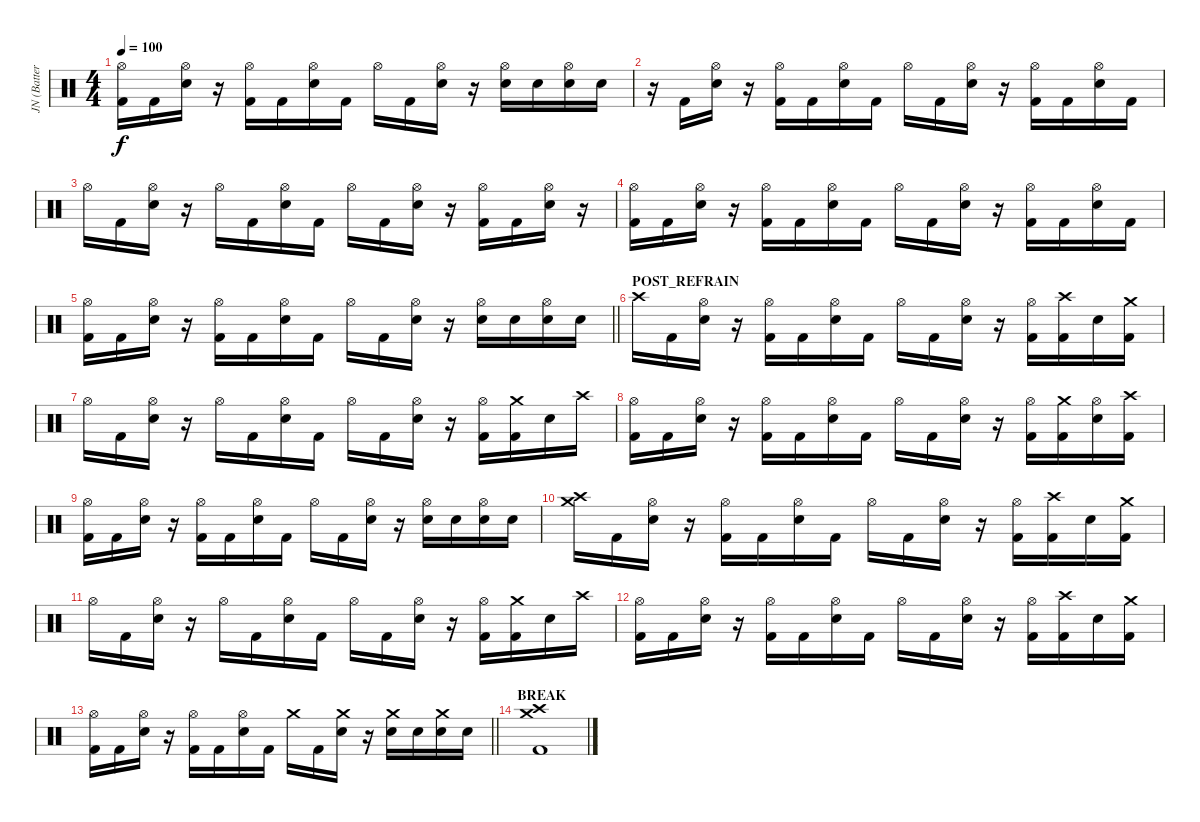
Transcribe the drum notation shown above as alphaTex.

\track ("JN (Batterie)" "JN (Batter") {instrument percussion}
\staff {score}
\articulation defaults
\ts (4 4)
\tempo 100
\clef neutral
\ks c
("Hi-Hat (open)" "Kick (hit) 2").16{dy f} "Kick (hit) 2".16 ("Hi-Hat (open)" "Electric Snare (hit)").16 r.16 ("Hi-Hat (open)" "Kick (hit) 2").16 "Kick (hit) 2".16 ("Hi-Hat (open)" "Electric Snare (hit)").16 "Kick (hit) 2".16 "Hi-Hat (open)".16 "Kick (hit) 2".16 ("Hi-Hat (open)" "Electric Snare (hit)").16 r.16 ("Hi-Hat (open)" "Electric Snare (hit)").16 "Electric Snare (hit)".16 ("Hi-Hat (open)" "Electric Snare (hit)").16 "Electric Snare (hit)".16 |
r.16 "Kick (hit) 2".16 ("Hi-Hat (open)" "Electric Snare (hit)").16 r.16 ("Hi-Hat (open)" "Kick (hit) 2").16 "Kick (hit) 2".16 ("Hi-Hat (open)" "Electric Snare (hit)").16 "Kick (hit) 2".16 "Hi-Hat (open)".16 "Kick (hit) 2".16 ("Hi-Hat (open)" "Electric Snare (hit)").16 r.16 ("Hi-Hat (open)" "Kick (hit) 2").16 "Kick (hit) 2".16 ("Hi-Hat (open)" "Electric Snare (hit)").16 "Kick (hit) 2".16 |
"Hi-Hat (open)".16 "Kick (hit) 2".16 ("Hi-Hat (open)" "Electric Snare (hit)").16 r.16 "Hi-Hat (open)".16 "Kick (hit) 2".16 ("Hi-Hat (open)" "Electric Snare (hit)").16 "Kick (hit) 2".16 "Hi-Hat (open)".16 "Kick (hit) 2".16 ("Hi-Hat (open)" "Electric Snare (hit)").16 r.16 ("Hi-Hat (open)" "Kick (hit) 2").16 "Kick (hit) 2".16 ("Hi-Hat (open)" "Electric Snare (hit)").16 r.16 |
("Hi-Hat (open)" "Kick (hit) 2").16 "Kick (hit) 2".16 ("Hi-Hat (open)" "Electric Snare (hit)").16 r.16 ("Hi-Hat (open)" "Kick (hit) 2").16 "Kick (hit) 2".16 ("Hi-Hat (open)" "Electric Snare (hit)").16 "Kick (hit) 2".16 "Hi-Hat (open)".16 "Kick (hit) 2".16 ("Hi-Hat (open)" "Electric Snare (hit)").16 r.16 ("Hi-Hat (open)" "Kick (hit) 2").16 "Kick (hit) 2".16 ("Hi-Hat (open)" "Electric Snare (hit)").16 "Kick (hit) 2".16 |
\barLineRight lightlight
("Hi-Hat (open)" "Kick (hit) 2").16 "Kick (hit) 2".16 ("Hi-Hat (open)" "Electric Snare (hit)").16 r.16 ("Hi-Hat (open)" "Kick (hit) 2").16 "Kick (hit) 2".16 ("Hi-Hat (open)" "Electric Snare (hit)").16 "Kick (hit) 2".16 "Hi-Hat (open)".16 "Kick (hit) 2".16 ("Hi-Hat (open)" "Electric Snare (hit)").16 r.16 ("Hi-Hat (open)" "Electric Snare (hit)").16 "Electric Snare (hit)".16 ("Hi-Hat (open)" "Electric Snare (hit)").16 "Electric Snare (hit)".16 |
\section ("" "POST_REFRAIN")
"Crash high (hit)".16 "Kick (hit) 2".16 ("Hi-Hat (open)" "Electric Snare (hit)").16 r.16 ("Hi-Hat (open)" "Kick (hit) 2").16 "Kick (hit) 2".16 ("Hi-Hat (open)" "Electric Snare (hit)").16 "Kick (hit) 2".16 "Hi-Hat (open)".16 "Kick (hit) 2".16 ("Hi-Hat (open)" "Electric Snare (hit)").16 r.16 ("Hi-Hat (open)" "Kick (hit) 2").16 ("Crash high (hit)" "Kick (hit) 2").16 "Electric Snare (hit)".16 ("Crash medium (hit)" "Kick (hit) 2").16 |
"Hi-Hat (open)".16 "Kick (hit) 2".16 ("Hi-Hat (open)" "Electric Snare (hit)").16 r.16 "Hi-Hat (open)".16 "Kick (hit) 2".16 ("Hi-Hat (open)" "Electric Snare (hit)").16 "Kick (hit) 2".16 "Hi-Hat (open)".16 "Kick (hit) 2".16 ("Hi-Hat (open)" "Electric Snare (hit)").16 r.16 ("Hi-Hat (open)" "Kick (hit) 2").16 ("Crash medium (hit)" "Kick (hit) 2").16 "Electric Snare (hit)".16 "Crash high (hit)".16 |
("Hi-Hat (open)" "Kick (hit) 2").16 "Kick (hit) 2".16 ("Hi-Hat (open)" "Electric Snare (hit)").16 r.16 ("Hi-Hat (open)" "Kick (hit) 2").16 "Kick (hit) 2".16 ("Hi-Hat (open)" "Electric Snare (hit)").16 "Kick (hit) 2".16 "Hi-Hat (open)".16 "Kick (hit) 2".16 ("Hi-Hat (open)" "Electric Snare (hit)").16 r.16 ("Hi-Hat (open)" "Kick (hit) 2").16 ("Crash medium (hit)" "Kick (hit) 2").16 ("Hi-Hat (open)" "Electric Snare (hit)").16 ("Crash high (hit)" "Kick (hit) 2").16 |
("Hi-Hat (open)" "Kick (hit) 2").16 "Kick (hit) 2".16 ("Hi-Hat (open)" "Electric Snare (hit)").16 r.16 ("Hi-Hat (open)" "Kick (hit) 2").16 "Kick (hit) 2".16 ("Hi-Hat (open)" "Electric Snare (hit)").16 "Kick (hit) 2".16 "Hi-Hat (open)".16 "Kick (hit) 2".16 ("Hi-Hat (open)" "Electric Snare (hit)").16 r.16 ("Hi-Hat (open)" "Electric Snare (hit)").16 "Electric Snare (hit)".16 ("Hi-Hat (open)" "Electric Snare (hit)").16 "Electric Snare (hit)".16 |
("Crash high (hit)" "Crash medium (hit)").16 "Kick (hit) 2".16 ("Hi-Hat (open)" "Electric Snare (hit)").16 r.16 ("Hi-Hat (open)" "Kick (hit) 2").16 "Kick (hit) 2".16 ("Hi-Hat (open)" "Electric Snare (hit)").16 "Kick (hit) 2".16 "Hi-Hat (open)".16 "Kick (hit) 2".16 ("Hi-Hat (open)" "Electric Snare (hit)").16 r.16 ("Hi-Hat (open)" "Kick (hit) 2").16 ("Crash high (hit)" "Kick (hit) 2").16 "Electric Snare (hit)".16 ("Crash medium (hit)" "Kick (hit) 2").16 |
"Hi-Hat (open)".16 "Kick (hit) 2".16 ("Hi-Hat (open)" "Electric Snare (hit)").16 r.16 "Hi-Hat (open)".16 "Kick (hit) 2".16 ("Hi-Hat (open)" "Electric Snare (hit)").16 "Kick (hit) 2".16 "Hi-Hat (open)".16 "Kick (hit) 2".16 ("Hi-Hat (open)" "Electric Snare (hit)").16 r.16 ("Hi-Hat (open)" "Kick (hit) 2").16 ("Crash medium (hit)" "Kick (hit) 2").16 "Electric Snare (hit)".16 "Crash high (hit)".16 |
("Hi-Hat (open)" "Kick (hit) 2").16 "Kick (hit) 2".16 ("Hi-Hat (open)" "Electric Snare (hit)").16 r.16 ("Hi-Hat (open)" "Kick (hit) 2").16 "Kick (hit) 2".16 ("Hi-Hat (open)" "Electric Snare (hit)").16 "Kick (hit) 2".16 "Hi-Hat (open)".16 "Kick (hit) 2".16 ("Hi-Hat (open)" "Electric Snare (hit)").16 r.16 ("Hi-Hat (open)" "Kick (hit) 2").16 ("Crash high (hit)" "Kick (hit) 2").16 "Electric Snare (hit)".16 ("Crash medium (hit)" "Kick (hit) 2").16 |
\barLineRight lightlight
("Hi-Hat (open)" "Kick (hit) 2").16 "Kick (hit) 2".16 ("Hi-Hat (open)" "Electric Snare (hit)").16 r.16 ("Hi-Hat (open)" "Kick (hit) 2").16 "Kick (hit) 2".16 ("Hi-Hat (open)" "Electric Snare (hit)").16 "Kick (hit) 2".16 "Crash medium (hit)".16 "Kick (hit) 2".16 ("Crash medium (hit)" "Electric Snare (hit)").16 r.16 ("Crash medium (hit)" "Electric Snare (hit)").16 "Electric Snare (hit)".16 ("Crash medium (hit)" "Electric Snare (hit)").16 "Electric Snare (hit)".16 |
\section ("" "BREAK")
("Crash medium (hit)" "Crash high (hit)" "Kick (hit) 2").1
